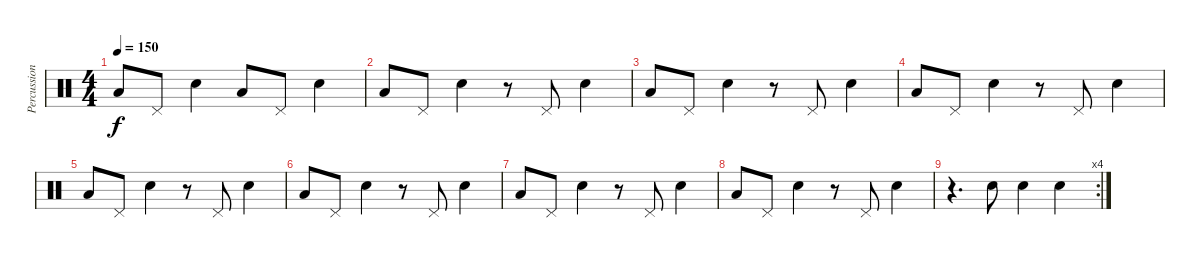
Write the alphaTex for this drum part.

\track ("Percussions" "Percussion") {instrument percussion}
\staff {score}
\articulation defaults
\ts (4 4)
\tempo 150
\clef neutral
\ks c "Low Floor Tom (hit)".8{dy f} "Pedal Hi-Hat (hit)".8 "Snare (hit) 2".4 "Low Floor Tom (hit)".8 "Pedal Hi-Hat (hit)".8 "Snare (hit) 2".4
|
"Low Floor Tom (hit)".8 "Pedal Hi-Hat (hit)".8 "Snare (hit) 2".4 r.8 "Pedal Hi-Hat (hit)".8 "Snare (hit) 2".4 |
"Low Floor Tom (hit)".8 "Pedal Hi-Hat (hit)".8 "Snare (hit) 2".4 r.8 "Pedal Hi-Hat (hit)".8 "Snare (hit) 2".4 |
"Low Floor Tom (hit)".8 "Pedal Hi-Hat (hit)".8 "Snare (hit) 2".4 r.8 "Pedal Hi-Hat (hit)".8 "Snare (hit) 2".4 |
"Low Floor Tom (hit)".8 "Pedal Hi-Hat (hit)".8 "Snare (hit) 2".4 r.8 "Pedal Hi-Hat (hit)".8 "Snare (hit) 2".4 |
"Low Floor Tom (hit)".8 "Pedal Hi-Hat (hit)".8 "Snare (hit) 2".4 r.8 "Pedal Hi-Hat (hit)".8 "Snare (hit) 2".4 |
"Low Floor Tom (hit)".8 "Pedal Hi-Hat (hit)".8 "Snare (hit) 2".4 r.8 "Pedal Hi-Hat (hit)".8 "Snare (hit) 2".4 |
"Low Floor Tom (hit)".8 "Pedal Hi-Hat (hit)".8 "Snare (hit) 2".4 r.8 "Pedal Hi-Hat (hit)".8 "Snare (hit) 2".4 |
\rc 4
r.4{d} "Snare (hit) 2".8 "Snare (hit) 2".4 "Snare (hit) 2".4
